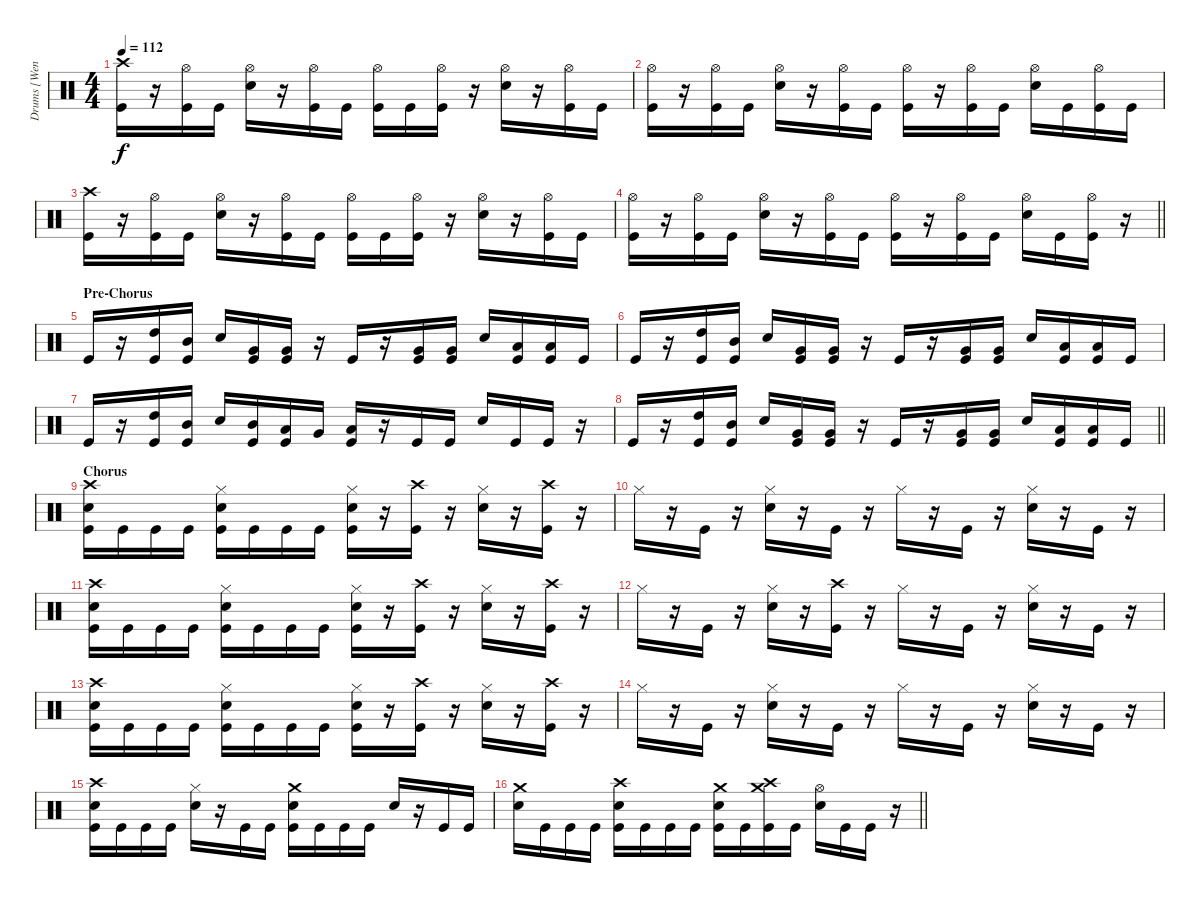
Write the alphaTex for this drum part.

\track ("Drums [Wengren]" "Drums [Wen") {instrument percussion}
\staff {score}
\articulation defaults
\ts (4 4)
\tempo 112
\clef neutral
\ks c
("Crash high (hit)" "Kick (hit)").16{dy f} r.16 ("Hi-Hat (open)" "Kick (hit)").16 "Kick (hit)".16 ("Hi-Hat (open)" "Electric Snare (hit)").16 r.16 ("Hi-Hat (open)" "Kick (hit)").16 "Kick (hit)".16 ("Hi-Hat (open)" "Kick (hit)").16 "Kick (hit)".16 ("Hi-Hat (open)" "Kick (hit)").16 r.16 ("Hi-Hat (open)" "Electric Snare (hit)").16 r.16 ("Hi-Hat (open)" "Kick (hit)").16 "Kick (hit)".16 |
("Hi-Hat (open)" "Kick (hit)").16 r.16 ("Hi-Hat (open)" "Kick (hit)").16 "Kick (hit)".16 ("Hi-Hat (open)" "Electric Snare (hit)").16 r.16 ("Hi-Hat (open)" "Kick (hit)").16 "Kick (hit)".16 ("Hi-Hat (open)" "Kick (hit)").16 r.16 ("Hi-Hat (open)" "Kick (hit)").16 "Kick (hit)".16 ("Hi-Hat (open)" "Electric Snare (hit)").16 "Kick (hit)".16 ("Hi-Hat (open)" "Kick (hit)").16 "Kick (hit)".16 |
("Crash high (hit)" "Kick (hit)").16 r.16 ("Hi-Hat (open)" "Kick (hit)").16 "Kick (hit)".16 ("Hi-Hat (open)" "Electric Snare (hit)").16 r.16 ("Hi-Hat (open)" "Kick (hit)").16 "Kick (hit)".16 ("Hi-Hat (open)" "Kick (hit)").16 "Kick (hit)".16 ("Hi-Hat (open)" "Kick (hit)").16 r.16 ("Hi-Hat (open)" "Electric Snare (hit)").16 r.16 ("Hi-Hat (open)" "Kick (hit)").16 "Kick (hit)".16 |
\barLineRight lightlight
("Hi-Hat (open)" "Kick (hit)").16 r.16 ("Hi-Hat (open)" "Kick (hit)").16 "Kick (hit)".16 ("Hi-Hat (open)" "Electric Snare (hit)").16 r.16 ("Hi-Hat (open)" "Kick (hit)").16 "Kick (hit)".16 ("Hi-Hat (open)" "Kick (hit)").16 r.16 ("Hi-Hat (open)" "Kick (hit)").16 "Kick (hit)".16 ("Hi-Hat (open)" "Electric Snare (hit)").16 "Kick (hit)".16 ("Hi-Hat (open)" "Kick (hit)").16 r.16 |
\section ("" "Pre-Chorus")
"Kick (hit)".16 r.16 ("High Tom (hit)" "Kick (hit)").16 ("Mid Tom (hit)" "Kick (hit)").16 "Electric Snare (hit)".16 ("Very Low Tom (hit)" "Kick (hit)").16 ("Very Low Tom (hit)" "Kick (hit)").16 r.16 "Kick (hit)".16 r.16 ("Very Low Tom (hit)" "Kick (hit)").16 ("Very Low Tom (hit)" "Kick (hit)").16 "Electric Snare (hit)".16 ("Low Floor Tom (hit)" "Kick (hit)").16 ("Low Floor Tom (hit)" "Kick (hit)").16 "Kick (hit)".16 |
"Kick (hit)".16 r.16 ("High Tom (hit)" "Kick (hit)").16 ("Mid Tom (hit)" "Kick (hit)").16 "Electric Snare (hit)".16 ("Very Low Tom (hit)" "Kick (hit)").16 ("Very Low Tom (hit)" "Kick (hit)").16 r.16 "Kick (hit)".16 r.16 ("Very Low Tom (hit)" "Kick (hit)").16 ("Very Low Tom (hit)" "Kick (hit)").16 "Electric Snare (hit)".16 ("Low Floor Tom (hit)" "Kick (hit)").16 ("Low Floor Tom (hit)" "Kick (hit)").16 "Kick (hit)".16 |
"Kick (hit)".16 r.16 ("High Tom (hit)" "Kick (hit)").16 ("Mid Tom (hit)" "Kick (hit)").16 "Electric Snare (hit)".16 ("Mid Tom (hit)" "Kick (hit)").16 ("Low Floor Tom (hit)" "Kick (hit)").16 "Very Low Tom (hit)".16 ("Low Floor Tom (hit)" "Kick (hit)").16 r.16 "Kick (hit)".16 "Kick (hit)".16 "Electric Snare (hit)".16 "Kick (hit)".16 "Kick (hit)".16 r.16 |
\barLineRight lightlight "Kick (hit)".16
r.16 ("High Tom (hit)" "Kick (hit)").16 ("Mid Tom (hit)" "Kick (hit)").16 "Electric Snare (hit)".16 ("Very Low Tom (hit)" "Kick (hit)").16 ("Very Low Tom (hit)" "Kick (hit)").16 r.16 "Kick (hit)".16 r.16 ("Very Low Tom (hit)" "Kick (hit)").16 ("Very Low Tom (hit)" "Kick (hit)").16 "Electric Snare (hit)".16 ("Low Floor Tom (hit)" "Kick (hit)").16 ("Low Floor Tom (hit)" "Kick (hit)").16 "Kick (hit)".16 |
\section ("" "Chorus")
("Crash high (hit)" "Electric Snare (hit)" "Kick (hit)").16 "Kick (hit)".16 "Kick (hit)".16 "Kick (hit)".16 ("Hi-Hat (closed)" "Electric Snare (hit)" "Kick (hit)").16 "Kick (hit)".16 "Kick (hit)".16 "Kick (hit)".16 ("Hi-Hat (closed)" "Electric Snare (hit)" "Kick (hit)").16 r.16 ("Crash high (hit)" "Kick (hit)").16 r.16 ("Hi-Hat (closed)" "Electric Snare (hit)").16 r.16 ("Crash high (hit)" "Kick (hit)").16 r.16 |
"Hi-Hat (closed)".16 r.16 "Kick (hit)".16 r.16 ("Hi-Hat (closed)" "Electric Snare (hit)").16 r.16 "Kick (hit)".16 r.16 "Hi-Hat (closed)".16 r.16 "Kick (hit)".16 r.16 ("Hi-Hat (closed)" "Electric Snare (hit)").16 r.16 "Kick (hit)".16 r.16 |
("Crash high (hit)" "Electric Snare (hit)" "Kick (hit)").16 "Kick (hit)".16 "Kick (hit)".16 "Kick (hit)".16 ("Hi-Hat (closed)" "Electric Snare (hit)" "Kick (hit)").16 "Kick (hit)".16 "Kick (hit)".16 "Kick (hit)".16 ("Hi-Hat (closed)" "Electric Snare (hit)" "Kick (hit)").16 r.16 ("Crash high (hit)" "Kick (hit)").16 r.16 ("Hi-Hat (closed)" "Electric Snare (hit)").16 r.16 ("Crash high (hit)" "Kick (hit)").16 r.16 |
"Hi-Hat (closed)".16 r.16 "Kick (hit)".16 r.16 ("Hi-Hat (closed)" "Electric Snare (hit)").16 r.16 ("Crash high (hit)" "Kick (hit)").16 r.16 "Hi-Hat (closed)".16 r.16 "Kick (hit)".16 r.16 ("Hi-Hat (closed)" "Electric Snare (hit)").16 r.16 "Kick (hit)".16 r.16 |
("Crash high (hit)" "Electric Snare (hit)" "Kick (hit)").16 "Kick (hit)".16 "Kick (hit)".16 "Kick (hit)".16 ("Hi-Hat (closed)" "Electric Snare (hit)" "Kick (hit)").16 "Kick (hit)".16 "Kick (hit)".16 "Kick (hit)".16 ("Hi-Hat (closed)" "Electric Snare (hit)" "Kick (hit)").16 r.16 ("Crash high (hit)" "Kick (hit)").16 r.16 ("Hi-Hat (closed)" "Electric Snare (hit)").16 r.16 ("Crash high (hit)" "Kick (hit)").16 r.16 |
"Hi-Hat (closed)".16 r.16 "Kick (hit)".16 r.16 ("Hi-Hat (closed)" "Electric Snare (hit)").16 r.16 "Kick (hit)".16 r.16 "Hi-Hat (closed)".16 r.16 "Kick (hit)".16 r.16 ("Hi-Hat (closed)" "Electric Snare (hit)").16 r.16 "Kick (hit)".16 r.16 |
("Crash high (hit)" "Electric Snare (hit)" "Kick (hit)").16 "Kick (hit)".16 "Kick (hit)".16 "Kick (hit)".16 ("Hi-Hat (closed)" "Electric Snare (hit)").16 r.16 "Kick (hit)".16 "Kick (hit)".16 ("Crash medium (hit)" "Electric Snare (hit)" "Kick (hit)").16 "Kick (hit)".16 "Kick (hit)".16 "Kick (hit)".16 "Electric Snare (hit)".16 r.16 "Kick (hit)".16 "Kick (hit)".16 |
\barLineRight lightlight
("Crash medium (hit)" "Electric Snare (hit)").16 "Kick (hit)".16 "Kick (hit)".16 "Kick (hit)".16 ("Crash high (hit)" "Electric Snare (hit)" "Kick (hit)").16 "Kick (hit)".16 "Kick (hit)".16 "Kick (hit)".16 ("Crash medium (hit)" "Electric Snare (hit)" "Kick (hit)").16 "Kick (hit)".16 ("Crash medium (hit)" "Crash high (hit)" "Kick (hit)").16 "Kick (hit)".16 ("Hi-Hat (open)" "Electric Snare (hit)").16 "Kick (hit)".16 "Kick (hit)".16 r.16
